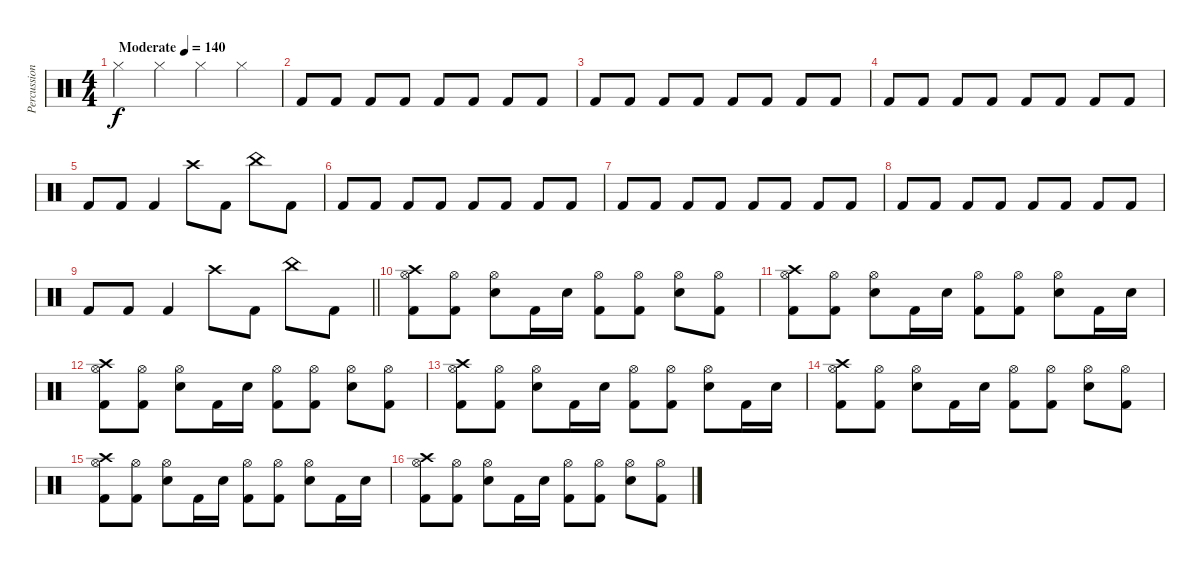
\track ("Percussion" "Percussion") {instrument percussion}
\staff {score}
\articulation defaults
\ts (4 4)
\tempo (140 "Moderate")
\clef neutral
\ks c "Hi-Hat (closed)".4{dy f} "Hi-Hat (closed)".4 "Hi-Hat (closed)".4 "Hi-Hat (closed)".4
|
"Kick (hit) 2".8 "Kick (hit) 2".8 "Kick (hit) 2".8 "Kick (hit) 2".8 "Kick (hit) 2".8 "Kick (hit) 2".8 "Kick (hit) 2".8 "Kick (hit) 2".8 |
"Kick (hit) 2".8 "Kick (hit) 2".8 "Kick (hit) 2".8 "Kick (hit) 2".8 "Kick (hit) 2".8 "Kick (hit) 2".8 "Kick (hit) 2".8 "Kick (hit) 2".8 |
"Kick (hit) 2".8 "Kick (hit) 2".8 "Kick (hit) 2".8 "Kick (hit) 2".8 "Kick (hit) 2".8 "Kick (hit) 2".8 "Kick (hit) 2".8 "Kick (hit) 2".8 |
"Kick (hit) 2".8 "Kick (hit) 2".8 "Kick (hit) 2".4 "Crash high (hit)".8 "Kick (hit) 2".8 "China (hit)".8 "Kick (hit) 2".8 |
"Kick (hit) 2".8 "Kick (hit) 2".8 "Kick (hit) 2".8 "Kick (hit) 2".8 "Kick (hit) 2".8 "Kick (hit) 2".8 "Kick (hit) 2".8 "Kick (hit) 2".8 |
"Kick (hit) 2".8 "Kick (hit) 2".8 "Kick (hit) 2".8 "Kick (hit) 2".8 "Kick (hit) 2".8 "Kick (hit) 2".8 "Kick (hit) 2".8 "Kick (hit) 2".8 |
"Kick (hit) 2".8 "Kick (hit) 2".8 "Kick (hit) 2".8 "Kick (hit) 2".8 "Kick (hit) 2".8 "Kick (hit) 2".8 "Kick (hit) 2".8 "Kick (hit) 2".8 |
\barLineRight lightlight "Kick (hit) 2".8 "Kick (hit) 2".8 "Kick (hit) 2".4 "Crash high (hit)".8 "Kick (hit) 2".8 "China (hit)".8 "Kick (hit) 2".8
|
\section ("" "")
("Hi-Hat (open)" "Crash high (hit)" "Kick (hit) 2").8 ("Hi-Hat (open)" "Kick (hit) 2").8 ("Hi-Hat (open)" "Snare (hit) 2").8 "Kick (hit) 2".16 "Snare (hit) 2".16 ("Hi-Hat (open)" "Kick (hit) 2").8 ("Hi-Hat (open)" "Kick (hit) 2").8 ("Hi-Hat (open)" "Snare (hit) 2").8 ("Hi-Hat (open)" "Kick (hit) 2").8 |
("Hi-Hat (open)" "Crash high (hit)" "Kick (hit) 2").8 ("Hi-Hat (open)" "Kick (hit) 2").8 ("Hi-Hat (open)" "Snare (hit) 2").8 "Kick (hit) 2".16 "Snare (hit) 2".16 ("Hi-Hat (open)" "Kick (hit) 2").8 ("Hi-Hat (open)" "Kick (hit) 2").8 ("Hi-Hat (open)" "Snare (hit) 2").8 "Kick (hit) 2".16 "Snare (hit) 2".16 |
("Hi-Hat (open)" "Crash high (hit)" "Kick (hit) 2").8 ("Hi-Hat (open)" "Kick (hit) 2").8 ("Hi-Hat (open)" "Snare (hit) 2").8 "Kick (hit) 2".16 "Snare (hit) 2".16 ("Hi-Hat (open)" "Kick (hit) 2").8 ("Hi-Hat (open)" "Kick (hit) 2").8 ("Hi-Hat (open)" "Snare (hit) 2").8 ("Hi-Hat (open)" "Kick (hit) 2").8 |
("Hi-Hat (open)" "Crash high (hit)" "Kick (hit) 2").8 ("Hi-Hat (open)" "Kick (hit) 2").8 ("Hi-Hat (open)" "Snare (hit) 2").8 "Kick (hit) 2".16 "Snare (hit) 2".16 ("Hi-Hat (open)" "Kick (hit) 2").8 ("Hi-Hat (open)" "Kick (hit) 2").8 ("Hi-Hat (open)" "Snare (hit) 2").8 "Kick (hit) 2".16 "Snare (hit) 2".16 |
("Hi-Hat (open)" "Crash high (hit)" "Kick (hit) 2").8 ("Hi-Hat (open)" "Kick (hit) 2").8 ("Hi-Hat (open)" "Snare (hit) 2").8 "Kick (hit) 2".16 "Snare (hit) 2".16 ("Hi-Hat (open)" "Kick (hit) 2").8 ("Hi-Hat (open)" "Kick (hit) 2").8 ("Hi-Hat (open)" "Snare (hit) 2").8 ("Hi-Hat (open)" "Kick (hit) 2").8 |
("Hi-Hat (open)" "Crash high (hit)" "Kick (hit) 2").8 ("Hi-Hat (open)" "Kick (hit) 2").8 ("Hi-Hat (open)" "Snare (hit) 2").8 "Kick (hit) 2".16 "Snare (hit) 2".16 ("Hi-Hat (open)" "Kick (hit) 2").8 ("Hi-Hat (open)" "Kick (hit) 2").8 ("Hi-Hat (open)" "Snare (hit) 2").8 "Kick (hit) 2".16 "Snare (hit) 2".16 |
("Hi-Hat (open)" "Crash high (hit)" "Kick (hit) 2").8 ("Hi-Hat (open)" "Kick (hit) 2").8 ("Hi-Hat (open)" "Snare (hit) 2").8 "Kick (hit) 2".16 "Snare (hit) 2".16 ("Hi-Hat (open)" "Kick (hit) 2").8 ("Hi-Hat (open)" "Kick (hit) 2").8 ("Hi-Hat (open)" "Snare (hit) 2").8 ("Hi-Hat (open)" "Kick (hit) 2").8
